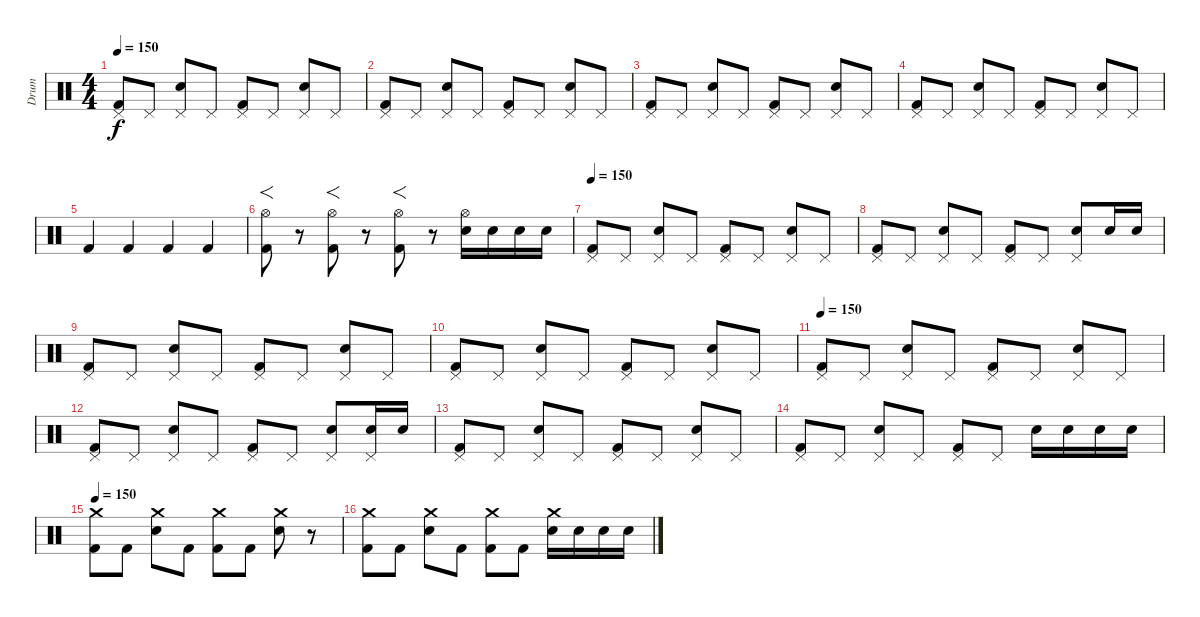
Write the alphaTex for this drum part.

\track ("Drum" "Drum") {instrument percussion}
\staff {score}
\articulation defaults
\ts (4 4)
\tempo 150
\clef neutral
\ks c
("Pedal Hi-Hat (hit)" "Kick (hit) 2").8{dy f} "Pedal Hi-Hat (hit)".8 ("Pedal Hi-Hat (hit)" "Electric Snare (hit)").8 "Pedal Hi-Hat (hit)".8 ("Pedal Hi-Hat (hit)" "Kick (hit) 2").8 "Pedal Hi-Hat (hit)".8 ("Pedal Hi-Hat (hit)" "Electric Snare (hit)").8 "Pedal Hi-Hat (hit)".8 |
("Pedal Hi-Hat (hit)" "Kick (hit) 2").8 "Pedal Hi-Hat (hit)".8 ("Pedal Hi-Hat (hit)" "Electric Snare (hit)").8 "Pedal Hi-Hat (hit)".8 ("Pedal Hi-Hat (hit)" "Kick (hit) 2").8 "Pedal Hi-Hat (hit)".8 ("Pedal Hi-Hat (hit)" "Electric Snare (hit)").8 "Pedal Hi-Hat (hit)".8 |
("Pedal Hi-Hat (hit)" "Kick (hit) 2").8 "Pedal Hi-Hat (hit)".8 ("Pedal Hi-Hat (hit)" "Electric Snare (hit)").8 "Pedal Hi-Hat (hit)".8 ("Pedal Hi-Hat (hit)" "Kick (hit) 2").8 "Pedal Hi-Hat (hit)".8 ("Pedal Hi-Hat (hit)" "Electric Snare (hit)").8 "Pedal Hi-Hat (hit)".8 |
("Pedal Hi-Hat (hit)" "Kick (hit) 2").8 "Pedal Hi-Hat (hit)".8 ("Pedal Hi-Hat (hit)" "Electric Snare (hit)").8 "Pedal Hi-Hat (hit)".8 ("Pedal Hi-Hat (hit)" "Kick (hit) 2").8 "Pedal Hi-Hat (hit)".8 ("Pedal Hi-Hat (hit)" "Electric Snare (hit)").8 "Pedal Hi-Hat (hit)".8 |
"Kick (hit) 2".4 "Kick (hit) 2".4 "Kick (hit) 2".4 "Kick (hit) 2".4 |
("Hi-Hat (open)" "Kick (hit) 2").8{f} r.8 ("Hi-Hat (open)" "Kick (hit) 2").8{f} r.8 ("Hi-Hat (open)" "Kick (hit) 2").8{f} r.8 ("Hi-Hat (open)" "Electric Snare (hit)").16 "Electric Snare (hit)".16 "Electric Snare (hit)".16 "Electric Snare (hit)".16 |
\tempo 150
("Pedal Hi-Hat (hit)" "Kick (hit) 2").8 "Pedal Hi-Hat (hit)".8 ("Pedal Hi-Hat (hit)" "Electric Snare (hit)").8 "Pedal Hi-Hat (hit)".8 ("Pedal Hi-Hat (hit)" "Kick (hit) 2").8 "Pedal Hi-Hat (hit)".8 ("Pedal Hi-Hat (hit)" "Electric Snare (hit)").8 "Pedal Hi-Hat (hit)".8 |
("Pedal Hi-Hat (hit)" "Kick (hit) 2").8 "Pedal Hi-Hat (hit)".8 ("Pedal Hi-Hat (hit)" "Electric Snare (hit)").8 "Pedal Hi-Hat (hit)".8 ("Pedal Hi-Hat (hit)" "Kick (hit) 2").8 "Pedal Hi-Hat (hit)".8 ("Pedal Hi-Hat (hit)" "Electric Snare (hit)").8 "Electric Snare (hit)".16 "Electric Snare (hit)".16 |
("Pedal Hi-Hat (hit)" "Kick (hit) 2").8 "Pedal Hi-Hat (hit)".8 ("Pedal Hi-Hat (hit)" "Electric Snare (hit)").8 "Pedal Hi-Hat (hit)".8 ("Pedal Hi-Hat (hit)" "Kick (hit) 2").8 "Pedal Hi-Hat (hit)".8 ("Pedal Hi-Hat (hit)" "Electric Snare (hit)").8 "Pedal Hi-Hat (hit)".8 |
("Pedal Hi-Hat (hit)" "Kick (hit) 2").8 "Pedal Hi-Hat (hit)".8 ("Pedal Hi-Hat (hit)" "Electric Snare (hit)").8 "Pedal Hi-Hat (hit)".8 ("Pedal Hi-Hat (hit)" "Kick (hit) 2").8 "Pedal Hi-Hat (hit)".8 ("Pedal Hi-Hat (hit)" "Electric Snare (hit)").8 "Pedal Hi-Hat (hit)".8 |
\tempo 150
("Pedal Hi-Hat (hit)" "Kick (hit) 2").8 "Pedal Hi-Hat (hit)".8 ("Pedal Hi-Hat (hit)" "Electric Snare (hit)").8 "Pedal Hi-Hat (hit)".8 ("Pedal Hi-Hat (hit)" "Kick (hit) 2").8 "Pedal Hi-Hat (hit)".8 ("Pedal Hi-Hat (hit)" "Electric Snare (hit)").8 "Pedal Hi-Hat (hit)".8 |
("Pedal Hi-Hat (hit)" "Kick (hit) 2").8 "Pedal Hi-Hat (hit)".8 ("Pedal Hi-Hat (hit)" "Electric Snare (hit)").8 "Pedal Hi-Hat (hit)".8 ("Pedal Hi-Hat (hit)" "Kick (hit) 2").8 "Pedal Hi-Hat (hit)".8 ("Pedal Hi-Hat (hit)" "Electric Snare (hit)").8 ("Pedal Hi-Hat (hit)" "Electric Snare (hit)").16 "Electric Snare (hit)".16 |
("Pedal Hi-Hat (hit)" "Kick (hit) 2").8 "Pedal Hi-Hat (hit)".8 ("Pedal Hi-Hat (hit)" "Electric Snare (hit)").8 "Pedal Hi-Hat (hit)".8 ("Pedal Hi-Hat (hit)" "Kick (hit) 2").8 "Pedal Hi-Hat (hit)".8 ("Pedal Hi-Hat (hit)" "Electric Snare (hit)").8 "Pedal Hi-Hat (hit)".8 |
("Pedal Hi-Hat (hit)" "Kick (hit) 2").8 "Pedal Hi-Hat (hit)".8 ("Pedal Hi-Hat (hit)" "Electric Snare (hit)").8 "Pedal Hi-Hat (hit)".8 ("Pedal Hi-Hat (hit)" "Kick (hit) 2").8 "Pedal Hi-Hat (hit)".8 "Electric Snare (hit)".16 "Electric Snare (hit)".16 "Electric Snare (hit)".16 "Electric Snare (hit)".16 |
\tempo 150
("Crash medium (hit)" "Kick (hit) 2").8 "Kick (hit) 2".8 ("Crash medium (hit)" "Electric Snare (hit)").8 "Kick (hit) 2".8 ("Crash medium (hit)" "Kick (hit) 2").8 "Kick (hit) 2".8 ("Crash medium (hit)" "Electric Snare (hit)").8 r.8 |
("Crash medium (hit)" "Kick (hit) 2").8 "Kick (hit) 2".8 ("Crash medium (hit)" "Electric Snare (hit)").8 "Kick (hit) 2".8 ("Crash medium (hit)" "Kick (hit) 2").8 "Kick (hit) 2".8 ("Crash medium (hit)" "Electric Snare (hit)").16 "Electric Snare (hit)".16 "Electric Snare (hit)".16 "Electric Snare (hit)".16
